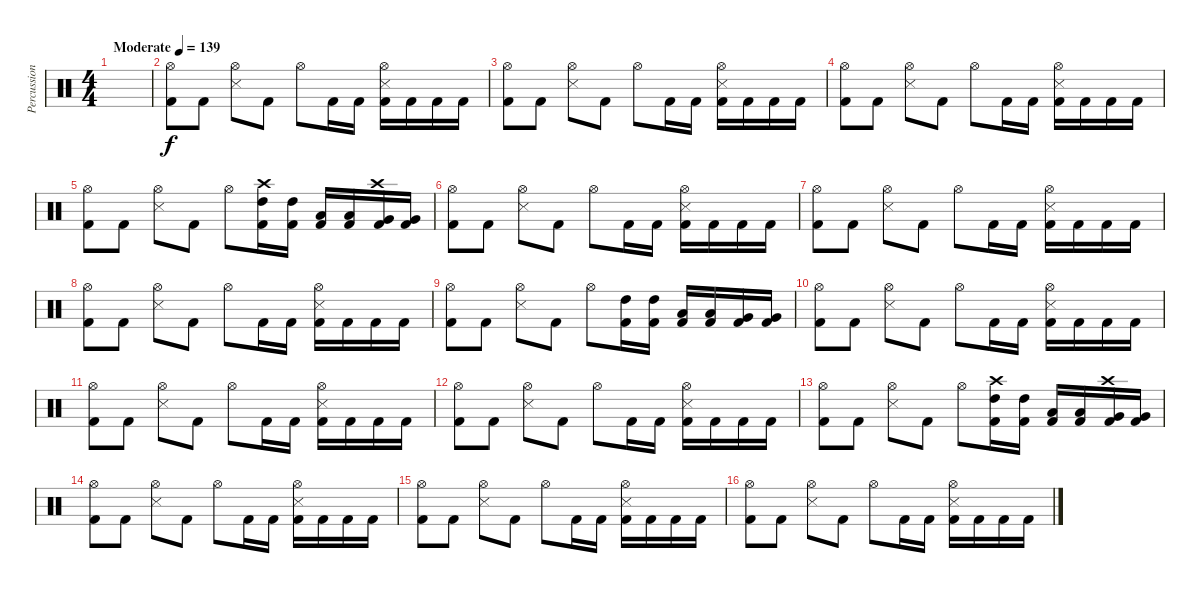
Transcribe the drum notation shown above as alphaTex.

\track ("Percussion" "Percussion") {instrument percussion}
\staff {score}
\articulation defaults
\ts (4 4)
\tempo (139 "Moderate")
\clef neutral
\ks c
|
("Hi-Hat (open)" "Kick (hit) 2").8 "Kick (hit) 2".8 ("Hi-Hat (open)" "Snare (side stick) 3").8 "Kick (hit) 2".8 "Hi-Hat (open)".8 "Kick (hit) 2".16 "Kick (hit) 2".16 ("Hi-Hat (open)" "Snare (side stick) 3" "Kick (hit) 2").16 "Kick (hit) 2".16 "Kick (hit) 2".16 "Kick (hit) 2".16 |
("Hi-Hat (open)" "Kick (hit) 2").8 "Kick (hit) 2".8 ("Hi-Hat (open)" "Snare (side stick) 3").8 "Kick (hit) 2".8 "Hi-Hat (open)".8 "Kick (hit) 2".16 "Kick (hit) 2".16 ("Hi-Hat (open)" "Snare (side stick) 3" "Kick (hit) 2").16 "Kick (hit) 2".16 "Kick (hit) 2".16 "Kick (hit) 2".16 |
("Hi-Hat (open)" "Kick (hit) 2").8 "Kick (hit) 2".8 ("Hi-Hat (open)" "Snare (side stick) 3").8 "Kick (hit) 2".8 "Hi-Hat (open)".8 "Kick (hit) 2".16 "Kick (hit) 2".16 ("Hi-Hat (open)" "Snare (side stick) 3" "Kick (hit) 2").16 "Kick (hit) 2".16 "Kick (hit) 2".16 "Kick (hit) 2".16 |
("Hi-Hat (open)" "Kick (hit) 2").8 "Kick (hit) 2".8 ("Hi-Hat (open)" "Snare (side stick) 3").8 "Kick (hit) 2".8 "Hi-Hat (open)".8 ("High Tom (hit)" "Crash high (hit)" "Kick (hit) 2").16 ("High Tom (hit)" "Kick (hit) 2").16 ("Low Tom (hit)" "Kick (hit) 2").16 ("Low Tom (hit)" "Kick (hit) 2").16 ("Very Low Tom (hit)" "Crash high (hit)" "Kick (hit) 2").16 ("Very Low Tom (hit)" "Kick (hit) 2").16 |
("Hi-Hat (open)" "Kick (hit) 2").8 "Kick (hit) 2".8 ("Hi-Hat (open)" "Snare (side stick) 3").8 "Kick (hit) 2".8 "Hi-Hat (open)".8 "Kick (hit) 2".16 "Kick (hit) 2".16 ("Hi-Hat (open)" "Snare (side stick) 3" "Kick (hit) 2").16 "Kick (hit) 2".16 "Kick (hit) 2".16 "Kick (hit) 2".16 |
("Hi-Hat (open)" "Kick (hit) 2").8 "Kick (hit) 2".8 ("Hi-Hat (open)" "Snare (side stick) 3").8 "Kick (hit) 2".8 "Hi-Hat (open)".8 "Kick (hit) 2".16 "Kick (hit) 2".16 ("Hi-Hat (open)" "Snare (side stick) 3" "Kick (hit) 2").16 "Kick (hit) 2".16 "Kick (hit) 2".16 "Kick (hit) 2".16 |
("Hi-Hat (open)" "Kick (hit) 2").8 "Kick (hit) 2".8 ("Hi-Hat (open)" "Snare (side stick) 3").8 "Kick (hit) 2".8 "Hi-Hat (open)".8 "Kick (hit) 2".16 "Kick (hit) 2".16 ("Hi-Hat (open)" "Snare (side stick) 3" "Kick (hit) 2").16 "Kick (hit) 2".16 "Kick (hit) 2".16 "Kick (hit) 2".16 |
("Hi-Hat (open)" "Kick (hit) 2").8 "Kick (hit) 2".8 ("Hi-Hat (open)" "Snare (side stick) 3").8 "Kick (hit) 2".8 "Hi-Hat (open)".8 ("High Tom (hit)" "Kick (hit) 2").16 ("High Tom (hit)" "Kick (hit) 2").16 ("Low Tom (hit)" "Kick (hit) 2").16 ("Low Tom (hit)" "Kick (hit) 2").16 ("Very Low Tom (hit)" "Kick (hit) 2").16 ("Very Low Tom (hit)" "Kick (hit) 2").16 |
("Hi-Hat (open)" "Kick (hit) 2").8 "Kick (hit) 2".8 ("Hi-Hat (open)" "Snare (side stick) 3").8 "Kick (hit) 2".8 "Hi-Hat (open)".8 "Kick (hit) 2".16 "Kick (hit) 2".16 ("Hi-Hat (open)" "Snare (side stick) 3" "Kick (hit) 2").16 "Kick (hit) 2".16 "Kick (hit) 2".16 "Kick (hit) 2".16 |
("Hi-Hat (open)" "Kick (hit) 2").8 "Kick (hit) 2".8 ("Hi-Hat (open)" "Snare (side stick) 3").8 "Kick (hit) 2".8 "Hi-Hat (open)".8 "Kick (hit) 2".16 "Kick (hit) 2".16 ("Hi-Hat (open)" "Snare (side stick) 3" "Kick (hit) 2").16 "Kick (hit) 2".16 "Kick (hit) 2".16 "Kick (hit) 2".16 |
("Hi-Hat (open)" "Kick (hit) 2").8 "Kick (hit) 2".8 ("Hi-Hat (open)" "Snare (side stick) 3").8 "Kick (hit) 2".8 "Hi-Hat (open)".8 "Kick (hit) 2".16 "Kick (hit) 2".16 ("Hi-Hat (open)" "Snare (side stick) 3" "Kick (hit) 2").16 "Kick (hit) 2".16 "Kick (hit) 2".16 "Kick (hit) 2".16 |
("Hi-Hat (open)" "Kick (hit) 2").8 "Kick (hit) 2".8 ("Hi-Hat (open)" "Snare (side stick) 3").8 "Kick (hit) 2".8 "Hi-Hat (open)".8 ("High Tom (hit)" "Crash high (hit)" "Kick (hit) 2").16 ("High Tom (hit)" "Kick (hit) 2").16 ("Low Tom (hit)" "Kick (hit) 2").16 ("Low Tom (hit)" "Kick (hit) 2").16 ("Very Low Tom (hit)" "Crash high (hit)" "Kick (hit) 2").16 ("Very Low Tom (hit)" "Kick (hit) 2").16 |
("Hi-Hat (open)" "Kick (hit) 2").8 "Kick (hit) 2".8 ("Hi-Hat (open)" "Snare (side stick) 3").8 "Kick (hit) 2".8 "Hi-Hat (open)".8 "Kick (hit) 2".16 "Kick (hit) 2".16 ("Hi-Hat (open)" "Snare (side stick) 3" "Kick (hit) 2").16 "Kick (hit) 2".16 "Kick (hit) 2".16 "Kick (hit) 2".16 |
("Hi-Hat (open)" "Kick (hit) 2").8 "Kick (hit) 2".8 ("Hi-Hat (open)" "Snare (side stick) 3").8 "Kick (hit) 2".8 "Hi-Hat (open)".8 "Kick (hit) 2".16 "Kick (hit) 2".16 ("Hi-Hat (open)" "Snare (side stick) 3" "Kick (hit) 2").16 "Kick (hit) 2".16 "Kick (hit) 2".16 "Kick (hit) 2".16 |
("Hi-Hat (open)" "Kick (hit) 2").8 "Kick (hit) 2".8 ("Hi-Hat (open)" "Snare (side stick) 3").8 "Kick (hit) 2".8 "Hi-Hat (open)".8 "Kick (hit) 2".16 "Kick (hit) 2".16 ("Hi-Hat (open)" "Snare (side stick) 3" "Kick (hit) 2").16 "Kick (hit) 2".16 "Kick (hit) 2".16 "Kick (hit) 2".16
